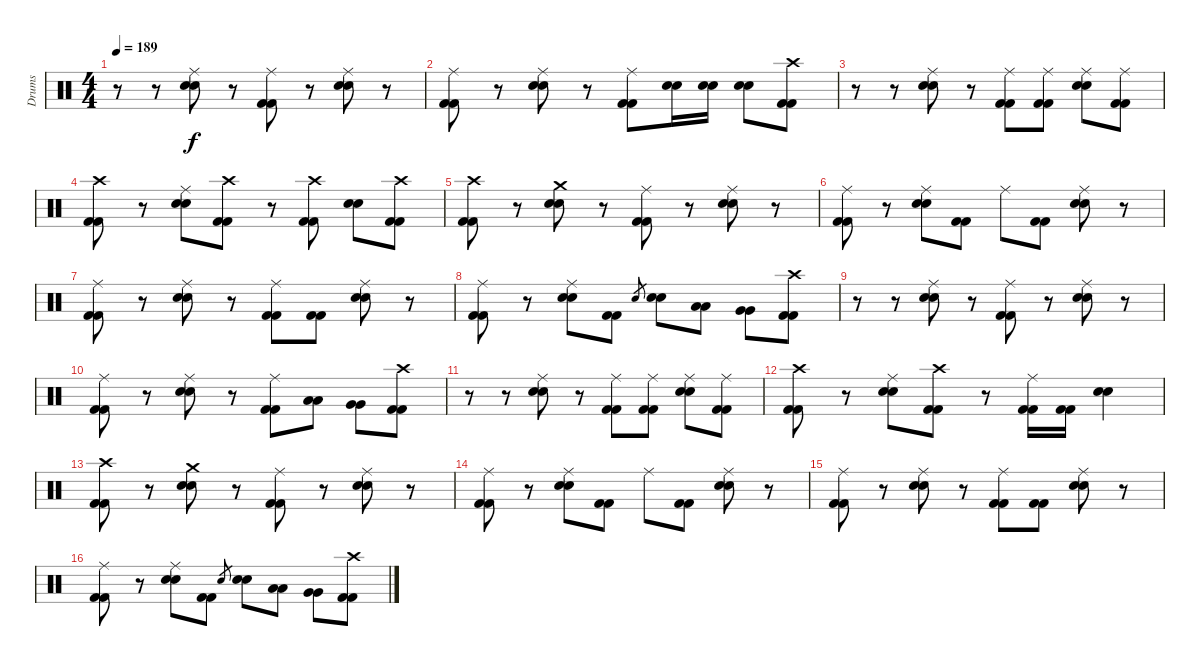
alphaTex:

\track ("Drums" "Drums") {instrument percussion}
\staff {score}
\articulation defaults
\ts (4 4)
\tempo 189
\clef neutral
\ks c
r.8{dy f} r.8 ("Ride (middle)" "Snare (hit) 2" "Snare (hit) 2").8 r.8 ("Ride (middle)" "Kick (hit) 2" "Kick (hit) 2").8 r.8 ("Ride (middle)" "Snare (hit) 2" "Snare (hit) 2").8 r.8 |
("Ride (middle)" "Kick (hit) 2" "Kick (hit) 2").8 r.8 ("Ride (middle)" "Snare (hit) 2" "Snare (hit) 2").8 r.8 ("Ride (middle)" "Kick (hit) 2" "Kick (hit) 2").8 ("Snare (hit) 2" "Snare (hit) 2").16 ("Snare (hit) 2" "Snare (hit) 2").16 ("Snare (hit) 2" "Snare (hit) 2").8 ("Crash high (hit)" "Kick (hit) 2" "Kick (hit) 2").8 |
r.8 r.8 ("Ride (middle)" "Snare (hit) 2" "Snare (hit) 2").8 r.8 ("Ride (middle)" "Kick (hit) 2" "Kick (hit) 2").8 ("Ride (middle)" "Kick (hit) 2" "Kick (hit) 2").8 ("Ride (middle)" "Snare (hit) 2" "Snare (hit) 2").8 ("Ride (middle)" "Kick (hit) 2" "Kick (hit) 2").8 |
("Crash high (hit)" "Kick (hit) 2" "Kick (hit) 2").8 r.8 ("Ride (middle)" "Snare (hit) 2" "Snare (hit) 2").8 ("Crash high (hit)" "Kick (hit) 2" "Kick (hit) 2").8 r.8 ("Crash high (hit)" "Kick (hit) 2" "Kick (hit) 2").8 ("Snare (hit) 2" "Snare (hit) 2").8 ("Crash high (hit)" "Kick (hit) 2" "Kick (hit) 2").8 |
("Crash high (hit)" "Kick (hit) 2" "Kick (hit) 2").8 r.8 ("Crash medium (hit)" "Snare (hit) 2" "Snare (hit) 2").8 r.8 ("Ride (middle)" "Kick (hit) 2" "Kick (hit) 2").8 r.8 ("Ride (middle)" "Snare (hit) 2" "Snare (hit) 2").8 r.8 |
("Ride (middle)" "Kick (hit) 2" "Kick (hit) 2").8 r.8 ("Ride (middle)" "Snare (hit) 2" "Snare (hit) 2").8 ("Kick (hit) 2" "Kick (hit) 2").8 "Ride (middle)".8 ("Kick (hit) 2" "Kick (hit) 2").8 ("Ride (middle)" "Snare (hit) 2" "Snare (hit) 2").8 r.8 |
("Ride (middle)" "Kick (hit) 2" "Kick (hit) 2").8 r.8 ("Ride (middle)" "Snare (hit) 2" "Snare (hit) 2").8 r.8 ("Ride (middle)" "Kick (hit) 2" "Kick (hit) 2").8 ("Kick (hit) 2" "Kick (hit) 2").8 ("Ride (middle)" "Snare (hit) 2" "Snare (hit) 2").8 r.8 |
("Ride (middle)" "Kick (hit) 2" "Kick (hit) 2").8 r.8 ("Ride (middle)" "Snare (hit) 2" "Snare (hit) 2").8 ("Kick (hit) 2" "Kick (hit) 2").8 "Snare (hit) 2".8{gr} ("Snare (hit) 2" "Snare (hit) 2").8 ("Low Tom (hit)" "Low Tom (hit)").8 ("Very Low Tom (hit)" "Very Low Tom (hit)").8 ("Crash high (hit)" "Kick (hit) 2" "Kick (hit) 2").8 |
r.8 r.8 ("Ride (middle)" "Snare (hit) 2" "Snare (hit) 2").8 r.8 ("Ride (middle)" "Kick (hit) 2" "Kick (hit) 2").8 r.8 ("Ride (middle)" "Snare (hit) 2" "Snare (hit) 2").8 r.8 |
("Ride (middle)" "Kick (hit) 2" "Kick (hit) 2").8 r.8 ("Ride (middle)" "Snare (hit) 2" "Snare (hit) 2").8 r.8 ("Ride (middle)" "Kick (hit) 2" "Kick (hit) 2").8 ("Low Tom (hit)" "Low Tom (hit)").8 ("Very Low Tom (hit)" "Very Low Tom (hit)").8 ("Crash high (hit)" "Kick (hit) 2" "Kick (hit) 2").8 |
r.8 r.8 ("Ride (middle)" "Snare (hit) 2" "Snare (hit) 2").8 r.8 ("Ride (middle)" "Kick (hit) 2" "Kick (hit) 2").8 ("Ride (middle)" "Kick (hit) 2" "Kick (hit) 2").8 ("Ride (middle)" "Snare (hit) 2" "Snare (hit) 2").8 ("Ride (middle)" "Kick (hit) 2" "Kick (hit) 2").8 |
("Crash high (hit)" "Kick (hit) 2" "Kick (hit) 2").8 r.8 ("Ride (middle)" "Snare (hit) 2" "Snare (hit) 2").8 ("Crash high (hit)" "Kick (hit) 2" "Kick (hit) 2").8 r.8 ("Ride (middle)" "Kick (hit) 2" "Kick (hit) 2").16 ("Kick (hit) 2" "Kick (hit) 2").16 ("Snare (hit) 2" "Snare (hit) 2").4 |
("Crash high (hit)" "Kick (hit) 2" "Kick (hit) 2").8 r.8 ("Crash medium (hit)" "Snare (hit) 2" "Snare (hit) 2").8 r.8 ("Ride (middle)" "Kick (hit) 2" "Kick (hit) 2").8 r.8 ("Ride (middle)" "Snare (hit) 2" "Snare (hit) 2").8 r.8 |
("Ride (middle)" "Kick (hit) 2" "Kick (hit) 2").8 r.8 ("Ride (middle)" "Snare (hit) 2" "Snare (hit) 2").8 ("Kick (hit) 2" "Kick (hit) 2").8 "Ride (middle)".8 ("Kick (hit) 2" "Kick (hit) 2").8 ("Ride (middle)" "Snare (hit) 2" "Snare (hit) 2").8 r.8 |
("Ride (middle)" "Kick (hit) 2" "Kick (hit) 2").8 r.8 ("Ride (middle)" "Snare (hit) 2" "Snare (hit) 2").8 r.8 ("Ride (middle)" "Kick (hit) 2" "Kick (hit) 2").8 ("Kick (hit) 2" "Kick (hit) 2").8 ("Ride (middle)" "Snare (hit) 2" "Snare (hit) 2").8 r.8 |
("Ride (middle)" "Kick (hit) 2" "Kick (hit) 2").8 r.8 ("Ride (middle)" "Snare (hit) 2" "Snare (hit) 2").8 ("Kick (hit) 2" "Kick (hit) 2").8 "Snare (hit) 2".8{gr} ("Snare (hit) 2" "Snare (hit) 2").8 ("Low Tom (hit)" "Low Tom (hit)").8 ("Very Low Tom (hit)" "Very Low Tom (hit)").8 ("Crash high (hit)" "Kick (hit) 2" "Kick (hit) 2").8
